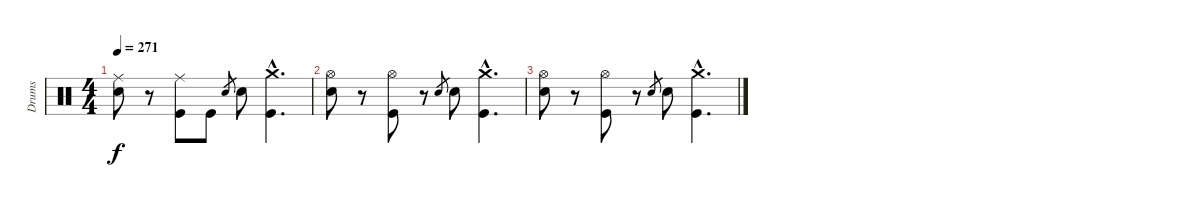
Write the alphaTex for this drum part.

\track ("Drums" "Drums") {instrument percussion}
\staff {score}
\articulation defaults
\ts (4 4)
\tempo 271
\clef neutral
\ks c
("Ride (middle)" "Electric Snare (hit)").8{dy f} r.8 ("Ride (middle)" "Kick (hit)").8 "Kick (hit)".8 "Electric Snare (hit)".8{gr} "Electric Snare (hit)".8 ("Crash medium (hit)"{hac} "Kick (hit)"{hac}).4{d} |
("Hi-Hat (open)" "Electric Snare (hit)").8 r.8 ("Hi-Hat (open)" "Kick (hit)").8 r.8 "Electric Snare (hit)".8{gr} "Electric Snare (hit)".8 ("Crash medium (hit)"{hac} "Kick (hit)"{hac}).4{d} |
("Hi-Hat (open)" "Electric Snare (hit)").8 r.8 ("Hi-Hat (open)" "Kick (hit)").8 r.8 "Electric Snare (hit)".8{gr} "Electric Snare (hit)".8 ("Crash medium (hit)"{hac} "Kick (hit)"{hac}).4{d}
